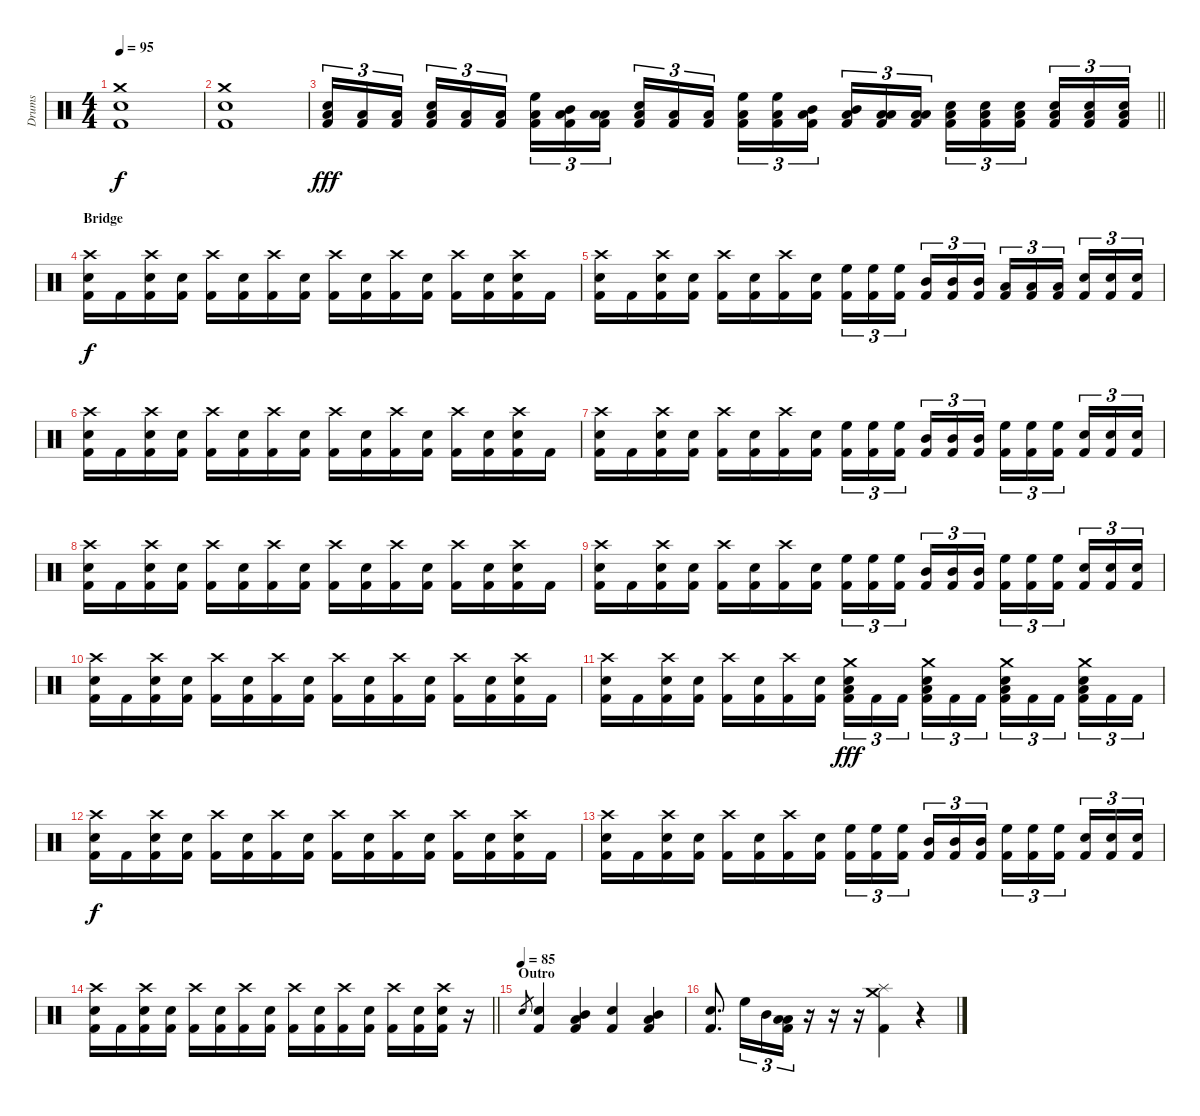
\track ("Drums" "Drums") {instrument percussion}
\staff {score}
\articulation defaults
\ts (4 4)
\tempo 95
\clef neutral
\ks c
("Crash medium (hit)" "Electric Snare (hit)" "Kick (hit) 2").1{dy f} |
("Crash medium (hit)" "Electric Snare (hit)" "Kick (hit) 2").1 |
\barLineRight lightlight
("Electric Snare (hit)" "Low Tom (hit)" "Kick (hit) 2").16{tu (3 2) dy fff} ("Low Tom (hit)" "Kick (hit) 2").16{tu (3 2)} ("Low Tom (hit)" "Kick (hit) 2").16{tu (3 2) beam splitsecondary} ("Electric Snare (hit)" "Low Tom (hit)" "Kick (hit) 2").16{tu (3 2)} ("Low Tom (hit)" "Kick (hit) 2").16{tu (3 2)} ("Low Tom (hit)" "Kick (hit) 2").16{tu (3 2)} ("High Floor Tom (hit)" "Low Tom (hit)" "Kick (hit) 2").16{tu (3 2)} ("Mid Tom (hit)" "Low Tom (hit)" "Kick (hit) 2").16{tu (3 2)} ("Low Tom (hit)" "Low Tom (hit)" "Kick (hit) 2").16{tu (3 2) beam splitsecondary} ("Electric Snare (hit)" "Low Tom (hit)" "Kick (hit) 2").16{tu (3 2)} ("Low Tom (hit)" "Kick (hit) 2").16{tu (3 2)} ("Low Tom (hit)" "Kick (hit) 2").16{tu (3 2)} ("High Floor Tom (hit)" "Low Tom (hit)" "Kick (hit) 2").16{tu (3 2)} ("High Floor Tom (hit)" "Low Tom (hit)" "Kick (hit) 2").16{tu (3 2)} ("Mid Tom (hit)" "Low Tom (hit)" "Kick (hit) 2").16{tu (3 2) beam splitsecondary} ("Mid Tom (hit)" "Low Tom (hit)" "Kick (hit) 2").16{tu (3 2)} ("Low Tom (hit)" "Low Tom (hit)" "Kick (hit) 2").16{tu (3 2)} ("Low Tom (hit)" "Low Tom (hit)" "Kick (hit) 2").16{tu (3 2)} ("Electric Snare (hit)" "Low Tom (hit)" "Kick (hit) 2").16{tu (3 2)} ("Electric Snare (hit)" "Low Tom (hit)" "Kick (hit) 2").16{tu (3 2)} ("Electric Snare (hit)" "Low Tom (hit)" "Kick (hit) 2").16{tu (3 2) beam splitsecondary} ("Snare (hit) 2" "Low Tom (hit)" "Kick (hit) 2").16{tu (3 2)} ("Snare (hit) 2" "Low Tom (hit)" "Kick (hit) 2").16{tu (3 2)} ("Snare (hit) 2" "Low Tom (hit)" "Kick (hit) 2").16{tu (3 2)} |
\section ("" "Bridge")
("Crash high (hit)" "Electric Snare (hit)" "Kick (hit) 2").16{dy f} "Kick (hit) 2".16 ("Crash high (hit)" "Electric Snare (hit)" "Kick (hit) 2").16 ("Electric Snare (hit)" "Kick (hit) 2").16 ("Crash high (hit)" "Kick (hit) 2").16 ("Electric Snare (hit)" "Kick (hit) 2").16 ("Crash high (hit)" "Kick (hit) 2").16 ("Electric Snare (hit)" "Kick (hit) 2").16 ("Crash high (hit)" "Kick (hit) 2").16 ("Electric Snare (hit)" "Kick (hit) 2").16 ("Crash high (hit)" "Kick (hit) 2").16 ("Electric Snare (hit)" "Kick (hit) 2").16 ("Crash high (hit)" "Kick (hit) 2").16 ("Electric Snare (hit)" "Kick (hit) 2").16 ("Crash high (hit)" "Electric Snare (hit)" "Kick (hit) 2").16 "Kick (hit) 2".16 |
("Crash high (hit)" "Electric Snare (hit)" "Kick (hit) 2").16 "Kick (hit) 2".16 ("Crash high (hit)" "Electric Snare (hit)" "Kick (hit) 2").16 ("Electric Snare (hit)" "Kick (hit) 2").16 ("Crash high (hit)" "Kick (hit) 2").16 ("Electric Snare (hit)" "Kick (hit) 2").16 ("Crash high (hit)" "Kick (hit) 2").16 ("Electric Snare (hit)" "Kick (hit) 2").16 ("High Floor Tom (hit)" "Kick (hit) 2").16{tu (3 2)} ("High Floor Tom (hit)" "Kick (hit) 2").16{tu (3 2)} ("High Floor Tom (hit)" "Kick (hit) 2").16{tu (3 2) beam splitsecondary} ("Mid Tom (hit)" "Kick (hit) 2").16{tu (3 2)} ("Mid Tom (hit)" "Kick (hit) 2").16{tu (3 2)} ("Mid Tom (hit)" "Kick (hit) 2").16{tu (3 2)} ("Low Tom (hit)" "Kick (hit) 2").16{tu (3 2)} ("Low Tom (hit)" "Kick (hit) 2").16{tu (3 2)} ("Low Tom (hit)" "Kick (hit) 2").16{tu (3 2) beam splitsecondary} ("Electric Snare (hit)" "Kick (hit) 2").16{tu (3 2)} ("Electric Snare (hit)" "Kick (hit) 2").16{tu (3 2)} ("Electric Snare (hit)" "Kick (hit) 2").16{tu (3 2)} |
("Crash high (hit)" "Electric Snare (hit)" "Kick (hit) 2").16 "Kick (hit) 2".16 ("Crash high (hit)" "Electric Snare (hit)" "Kick (hit) 2").16 ("Electric Snare (hit)" "Kick (hit) 2").16 ("Crash high (hit)" "Kick (hit) 2").16 ("Electric Snare (hit)" "Kick (hit) 2").16 ("Crash high (hit)" "Kick (hit) 2").16 ("Electric Snare (hit)" "Kick (hit) 2").16 ("Crash high (hit)" "Kick (hit) 2").16 ("Electric Snare (hit)" "Kick (hit) 2").16 ("Crash high (hit)" "Kick (hit) 2").16 ("Electric Snare (hit)" "Kick (hit) 2").16 ("Crash high (hit)" "Kick (hit) 2").16 ("Electric Snare (hit)" "Kick (hit) 2").16 ("Crash high (hit)" "Electric Snare (hit)" "Kick (hit) 2").16 "Kick (hit) 2".16 |
("Crash high (hit)" "Electric Snare (hit)" "Kick (hit) 2").16 "Kick (hit) 2".16 ("Crash high (hit)" "Electric Snare (hit)" "Kick (hit) 2").16 ("Electric Snare (hit)" "Kick (hit) 2").16 ("Crash high (hit)" "Kick (hit) 2").16 ("Electric Snare (hit)" "Kick (hit) 2").16 ("Crash high (hit)" "Kick (hit) 2").16 ("Electric Snare (hit)" "Kick (hit) 2").16 ("High Floor Tom (hit)" "Kick (hit) 2").16{tu (3 2)} ("High Floor Tom (hit)" "Kick (hit) 2").16{tu (3 2)} ("High Floor Tom (hit)" "Kick (hit) 2").16{tu (3 2) beam splitsecondary} ("Mid Tom (hit)" "Kick (hit) 2").16{tu (3 2)} ("Mid Tom (hit)" "Kick (hit) 2").16{tu (3 2)} ("Mid Tom (hit)" "Kick (hit) 2").16{tu (3 2)} ("High Floor Tom (hit)" "Kick (hit) 2").16{tu (3 2)} ("High Floor Tom (hit)" "Kick (hit) 2").16{tu (3 2)} ("High Floor Tom (hit)" "Kick (hit) 2").16{tu (3 2) beam splitsecondary} ("Electric Snare (hit)" "Kick (hit) 2").16{tu (3 2)} ("Electric Snare (hit)" "Kick (hit) 2").16{tu (3 2)} ("Electric Snare (hit)" "Kick (hit) 2").16{tu (3 2)} |
("Crash high (hit)" "Electric Snare (hit)" "Kick (hit) 2").16 "Kick (hit) 2".16 ("Crash high (hit)" "Electric Snare (hit)" "Kick (hit) 2").16 ("Electric Snare (hit)" "Kick (hit) 2").16 ("Crash high (hit)" "Kick (hit) 2").16 ("Electric Snare (hit)" "Kick (hit) 2").16 ("Crash high (hit)" "Kick (hit) 2").16 ("Electric Snare (hit)" "Kick (hit) 2").16 ("Crash high (hit)" "Kick (hit) 2").16 ("Electric Snare (hit)" "Kick (hit) 2").16 ("Crash high (hit)" "Kick (hit) 2").16 ("Electric Snare (hit)" "Kick (hit) 2").16 ("Crash high (hit)" "Kick (hit) 2").16 ("Electric Snare (hit)" "Kick (hit) 2").16 ("Crash high (hit)" "Electric Snare (hit)" "Kick (hit) 2").16 "Kick (hit) 2".16 |
("Crash high (hit)" "Electric Snare (hit)" "Kick (hit) 2").16 "Kick (hit) 2".16 ("Crash high (hit)" "Electric Snare (hit)" "Kick (hit) 2").16 ("Electric Snare (hit)" "Kick (hit) 2").16 ("Crash high (hit)" "Kick (hit) 2").16 ("Electric Snare (hit)" "Kick (hit) 2").16 ("Crash high (hit)" "Kick (hit) 2").16 ("Electric Snare (hit)" "Kick (hit) 2").16 ("High Floor Tom (hit)" "Kick (hit) 2").16{tu (3 2)} ("High Floor Tom (hit)" "Kick (hit) 2").16{tu (3 2)} ("High Floor Tom (hit)" "Kick (hit) 2").16{tu (3 2) beam splitsecondary} ("Mid Tom (hit)" "Kick (hit) 2").16{tu (3 2)} ("Mid Tom (hit)" "Kick (hit) 2").16{tu (3 2)} ("Mid Tom (hit)" "Kick (hit) 2").16{tu (3 2)} ("High Floor Tom (hit)" "Kick (hit) 2").16{tu (3 2)} ("High Floor Tom (hit)" "Kick (hit) 2").16{tu (3 2)} ("High Floor Tom (hit)" "Kick (hit) 2").16{tu (3 2) beam splitsecondary} ("Electric Snare (hit)" "Kick (hit) 2").16{tu (3 2)} ("Electric Snare (hit)" "Kick (hit) 2").16{tu (3 2)} ("Electric Snare (hit)" "Kick (hit) 2").16{tu (3 2)} |
("Crash high (hit)" "Electric Snare (hit)" "Kick (hit) 2").16 "Kick (hit) 2".16 ("Crash high (hit)" "Electric Snare (hit)" "Kick (hit) 2").16 ("Electric Snare (hit)" "Kick (hit) 2").16 ("Crash high (hit)" "Kick (hit) 2").16 ("Electric Snare (hit)" "Kick (hit) 2").16 ("Crash high (hit)" "Kick (hit) 2").16 ("Electric Snare (hit)" "Kick (hit) 2").16 ("Crash high (hit)" "Kick (hit) 2").16 ("Electric Snare (hit)" "Kick (hit) 2").16 ("Crash high (hit)" "Kick (hit) 2").16 ("Electric Snare (hit)" "Kick (hit) 2").16 ("Crash high (hit)" "Kick (hit) 2").16 ("Electric Snare (hit)" "Kick (hit) 2").16 ("Crash high (hit)" "Electric Snare (hit)" "Kick (hit) 2").16 "Kick (hit) 2".16 |
("Crash high (hit)" "Electric Snare (hit)" "Kick (hit) 2").16 "Kick (hit) 2".16 ("Crash high (hit)" "Electric Snare (hit)" "Kick (hit) 2").16 ("Electric Snare (hit)" "Kick (hit) 2").16 ("Crash high (hit)" "Kick (hit) 2").16 ("Electric Snare (hit)" "Kick (hit) 2").16 ("Crash high (hit)" "Kick (hit) 2").16 ("Electric Snare (hit)" "Kick (hit) 2").16 ("Crash medium (hit)" "Electric Snare (hit)" "Low Floor Tom (hit)" "Kick (hit) 2").16{tu (3 2) dy fff} "Kick (hit) 2".16{tu (3 2)} "Kick (hit) 2".16{tu (3 2) beam splitsecondary} ("Crash medium (hit)" "Electric Snare (hit)" "Low Floor Tom (hit)" "Kick (hit) 2").16{tu (3 2)} "Kick (hit) 2".16{tu (3 2)} "Kick (hit) 2".16{tu (3 2)} ("Crash medium (hit)" "Electric Snare (hit)" "Low Floor Tom (hit)" "Kick (hit) 2").16{tu (3 2)} "Kick (hit) 2".16{tu (3 2)} "Kick (hit) 2".16{tu (3 2) beam splitsecondary} ("Crash medium (hit)" "Electric Snare (hit)" "Low Floor Tom (hit)" "Kick (hit) 2").16{tu (3 2)} "Kick (hit) 2".16{tu (3 2)} "Kick (hit) 2".16{tu (3 2)} |
("Crash high (hit)" "Electric Snare (hit)" "Kick (hit) 2").16{dy f} "Kick (hit) 2".16 ("Crash high (hit)" "Electric Snare (hit)" "Kick (hit) 2").16 ("Electric Snare (hit)" "Kick (hit) 2").16 ("Crash high (hit)" "Kick (hit) 2").16 ("Electric Snare (hit)" "Kick (hit) 2").16 ("Crash high (hit)" "Kick (hit) 2").16 ("Electric Snare (hit)" "Kick (hit) 2").16 ("Crash high (hit)" "Kick (hit) 2").16 ("Electric Snare (hit)" "Kick (hit) 2").16 ("Crash high (hit)" "Kick (hit) 2").16 ("Electric Snare (hit)" "Kick (hit) 2").16 ("Crash high (hit)" "Kick (hit) 2").16 ("Electric Snare (hit)" "Kick (hit) 2").16 ("Crash high (hit)" "Electric Snare (hit)" "Kick (hit) 2").16 "Kick (hit) 2".16 |
("Crash high (hit)" "Electric Snare (hit)" "Kick (hit) 2").16 "Kick (hit) 2".16 ("Crash high (hit)" "Electric Snare (hit)" "Kick (hit) 2").16 ("Electric Snare (hit)" "Kick (hit) 2").16 ("Crash high (hit)" "Kick (hit) 2").16 ("Electric Snare (hit)" "Kick (hit) 2").16 ("Crash high (hit)" "Kick (hit) 2").16 ("Electric Snare (hit)" "Kick (hit) 2").16 ("High Floor Tom (hit)" "Kick (hit) 2").16{tu (3 2)} ("High Floor Tom (hit)" "Kick (hit) 2").16{tu (3 2)} ("High Floor Tom (hit)" "Kick (hit) 2").16{tu (3 2) beam splitsecondary} ("Mid Tom (hit)" "Kick (hit) 2").16{tu (3 2)} ("Mid Tom (hit)" "Kick (hit) 2").16{tu (3 2)} ("Mid Tom (hit)" "Kick (hit) 2").16{tu (3 2)} ("High Floor Tom (hit)" "Kick (hit) 2").16{tu (3 2)} ("High Floor Tom (hit)" "Kick (hit) 2").16{tu (3 2)} ("High Floor Tom (hit)" "Kick (hit) 2").16{tu (3 2) beam splitsecondary} ("Electric Snare (hit)" "Kick (hit) 2").16{tu (3 2)} ("Electric Snare (hit)" "Kick (hit) 2").16{tu (3 2)} ("Electric Snare (hit)" "Kick (hit) 2").16{tu (3 2)} |
\barLineRight lightlight
("Crash high (hit)" "Electric Snare (hit)" "Kick (hit) 2").16 "Kick (hit) 2".16 ("Crash high (hit)" "Electric Snare (hit)" "Kick (hit) 2").16 ("Electric Snare (hit)" "Kick (hit) 2").16 ("Crash high (hit)" "Kick (hit) 2").16 ("Electric Snare (hit)" "Kick (hit) 2").16 ("Crash high (hit)" "Kick (hit) 2").16 ("Electric Snare (hit)" "Kick (hit) 2").16 ("Crash high (hit)" "Kick (hit) 2").16 ("Electric Snare (hit)" "Kick (hit) 2").16 ("Crash high (hit)" "Kick (hit) 2").16 ("Electric Snare (hit)" "Kick (hit) 2").16 ("Crash high (hit)" "Kick (hit) 2").16 ("Electric Snare (hit)" "Kick (hit) 2").16 ("Crash high (hit)" "Electric Snare (hit)" "Kick (hit) 2").16 r.16 |
\section ("" "Outro")
\tempo (85)
"Electric Snare (hit)".8{gr} ("Electric Snare (hit)" "Kick (hit) 2").4 ("Low Tom (hit)" "Mid Tom (hit)" "Kick (hit) 2").4 ("Electric Snare (hit)" "Kick (hit) 2").4 ("Low Tom (hit)" "Mid Tom (hit)" "Kick (hit) 2").4 |
("Electric Snare (hit)" "Kick (hit) 2").8{d} "High Floor Tom (hit)".16{tu (3 2)} "Mid Tom (hit)".16{tu (3 2)} ("Low Tom (hit)" "Low Floor Tom (hit)" "Kick (hit) 2").16{tu (3 2)} r.16 r.16 r.16 ("Crash medium (hit)" "Splash (hit)" "Kick (hit) 2").4 r.4
